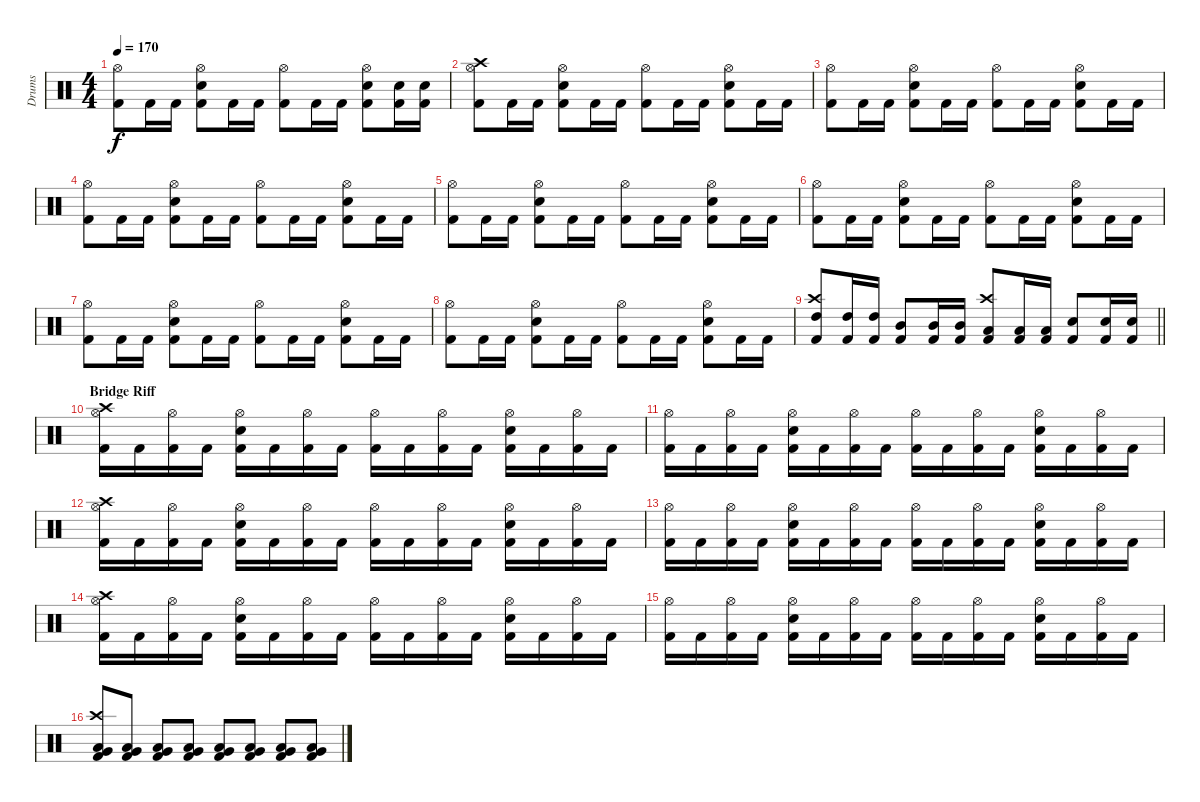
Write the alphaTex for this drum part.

\track ("Drums" "Drums") {instrument percussion}
\staff {score}
\articulation defaults
\ts (4 4)
\tempo 170
\clef neutral
\ks c
("Hi-Hat (open)" "Kick (hit) 2").8{dy f} "Kick (hit) 2".16 "Kick (hit) 2".16 ("Hi-Hat (open)" "Snare (hit) 2" "Kick (hit) 2").8 "Kick (hit) 2".16 "Kick (hit) 2".16 ("Hi-Hat (open)" "Kick (hit) 2").8 "Kick (hit) 2".16 "Kick (hit) 2".16 ("Hi-Hat (open)" "Snare (hit) 2" "Kick (hit) 2").8 ("Snare (hit) 2" "Kick (hit) 2").16 ("Snare (hit) 2" "Kick (hit) 2").16 |
("Crash high (hit)" "Hi-Hat (open)" "Kick (hit) 2").8 "Kick (hit) 2".16 "Kick (hit) 2".16 ("Hi-Hat (open)" "Snare (hit) 2" "Kick (hit) 2").8 "Kick (hit) 2".16 "Kick (hit) 2".16 ("Hi-Hat (open)" "Kick (hit) 2").8 "Kick (hit) 2".16 "Kick (hit) 2".16 ("Hi-Hat (open)" "Snare (hit) 2" "Kick (hit) 2").8 "Kick (hit) 2".16 "Kick (hit) 2".16 |
("Hi-Hat (open)" "Kick (hit) 2").8 "Kick (hit) 2".16 "Kick (hit) 2".16 ("Hi-Hat (open)" "Snare (hit) 2" "Kick (hit) 2").8 "Kick (hit) 2".16 "Kick (hit) 2".16 ("Hi-Hat (open)" "Kick (hit) 2").8 "Kick (hit) 2".16 "Kick (hit) 2".16 ("Hi-Hat (open)" "Snare (hit) 2" "Kick (hit) 2").8 "Kick (hit) 2".16 "Kick (hit) 2".16 |
("Hi-Hat (open)" "Kick (hit) 2").8 "Kick (hit) 2".16 "Kick (hit) 2".16 ("Hi-Hat (open)" "Snare (hit) 2" "Kick (hit) 2").8 "Kick (hit) 2".16 "Kick (hit) 2".16 ("Hi-Hat (open)" "Kick (hit) 2").8 "Kick (hit) 2".16 "Kick (hit) 2".16 ("Hi-Hat (open)" "Snare (hit) 2" "Kick (hit) 2").8 "Kick (hit) 2".16 "Kick (hit) 2".16 |
("Hi-Hat (open)" "Kick (hit) 2").8 "Kick (hit) 2".16 "Kick (hit) 2".16 ("Hi-Hat (open)" "Snare (hit) 2" "Kick (hit) 2").8 "Kick (hit) 2".16 "Kick (hit) 2".16 ("Hi-Hat (open)" "Kick (hit) 2").8 "Kick (hit) 2".16 "Kick (hit) 2".16 ("Hi-Hat (open)" "Snare (hit) 2" "Kick (hit) 2").8 "Kick (hit) 2".16 "Kick (hit) 2".16 |
("Hi-Hat (open)" "Kick (hit) 2").8 "Kick (hit) 2".16 "Kick (hit) 2".16 ("Hi-Hat (open)" "Snare (hit) 2" "Kick (hit) 2").8 "Kick (hit) 2".16 "Kick (hit) 2".16 ("Hi-Hat (open)" "Kick (hit) 2").8 "Kick (hit) 2".16 "Kick (hit) 2".16 ("Hi-Hat (open)" "Snare (hit) 2" "Kick (hit) 2").8 "Kick (hit) 2".16 "Kick (hit) 2".16 |
("Hi-Hat (open)" "Kick (hit) 2").8 "Kick (hit) 2".16 "Kick (hit) 2".16 ("Hi-Hat (open)" "Snare (hit) 2" "Kick (hit) 2").8 "Kick (hit) 2".16 "Kick (hit) 2".16 ("Hi-Hat (open)" "Kick (hit) 2").8 "Kick (hit) 2".16 "Kick (hit) 2".16 ("Hi-Hat (open)" "Snare (hit) 2" "Kick (hit) 2").8 "Kick (hit) 2".16 "Kick (hit) 2".16 |
("Hi-Hat (open)" "Kick (hit) 2").8 "Kick (hit) 2".16 "Kick (hit) 2".16 ("Hi-Hat (open)" "Snare (hit) 2" "Kick (hit) 2").8 "Kick (hit) 2".16 "Kick (hit) 2".16 ("Hi-Hat (open)" "Kick (hit) 2").8 "Kick (hit) 2".16 "Kick (hit) 2".16 ("Hi-Hat (open)" "Snare (hit) 2" "Kick (hit) 2").8 "Kick (hit) 2".16 "Kick (hit) 2".16 |
\barLineRight lightlight
("Crash high (hit)" "High Tom (hit)" "Kick (hit) 2").8 ("High Tom (hit)" "Kick (hit) 2").16 ("High Tom (hit)" "Kick (hit) 2").16 ("Mid Tom (hit)" "Kick (hit) 2").8 ("Mid Tom (hit)" "Kick (hit) 2").16 ("Mid Tom (hit)" "Kick (hit) 2").16 ("Crash high (hit)" "Low Tom (hit)" "Kick (hit) 2").8 ("Low Tom (hit)" "Kick (hit) 2").16 ("Low Tom (hit)" "Kick (hit) 2").16 ("Snare (hit) 2" "Kick (hit) 2").8 ("Snare (hit) 2" "Kick (hit) 2").16 ("Snare (hit) 2" "Kick (hit) 2").16 |
\section ("" "Bridge Riff")
("Crash high (hit)" "Hi-Hat (open)" "Kick (hit) 2").16 "Kick (hit) 2".16 ("Hi-Hat (open)" "Kick (hit) 2").16 "Kick (hit) 2".16 ("Hi-Hat (open)" "Snare (hit) 2" "Kick (hit) 2").16 "Kick (hit) 2".16 ("Hi-Hat (open)" "Kick (hit) 2").16 "Kick (hit) 2".16 ("Hi-Hat (open)" "Kick (hit) 2").16 "Kick (hit) 2".16 ("Hi-Hat (open)" "Kick (hit) 2").16 "Kick (hit) 2".16 ("Hi-Hat (open)" "Snare (hit) 2" "Kick (hit) 2").16 "Kick (hit) 2".16 ("Hi-Hat (open)" "Kick (hit) 2").16 "Kick (hit) 2".16 |
("Hi-Hat (open)" "Kick (hit) 2").16 "Kick (hit) 2".16 ("Hi-Hat (open)" "Kick (hit) 2").16 "Kick (hit) 2".16 ("Hi-Hat (open)" "Snare (hit) 2" "Kick (hit) 2").16 "Kick (hit) 2".16 ("Hi-Hat (open)" "Kick (hit) 2").16 "Kick (hit) 2".16 ("Hi-Hat (open)" "Kick (hit) 2").16 "Kick (hit) 2".16 ("Hi-Hat (open)" "Kick (hit) 2").16 "Kick (hit) 2".16 ("Hi-Hat (open)" "Snare (hit) 2" "Kick (hit) 2").16 "Kick (hit) 2".16 ("Hi-Hat (open)" "Kick (hit) 2").16 "Kick (hit) 2".16 |
("Crash high (hit)" "Hi-Hat (open)" "Kick (hit) 2").16 "Kick (hit) 2".16 ("Hi-Hat (open)" "Kick (hit) 2").16 "Kick (hit) 2".16 ("Hi-Hat (open)" "Snare (hit) 2" "Kick (hit) 2").16 "Kick (hit) 2".16 ("Hi-Hat (open)" "Kick (hit) 2").16 "Kick (hit) 2".16 ("Hi-Hat (open)" "Kick (hit) 2").16 "Kick (hit) 2".16 ("Hi-Hat (open)" "Kick (hit) 2").16 "Kick (hit) 2".16 ("Hi-Hat (open)" "Snare (hit) 2" "Kick (hit) 2").16 "Kick (hit) 2".16 ("Hi-Hat (open)" "Kick (hit) 2").16 "Kick (hit) 2".16 |
("Hi-Hat (open)" "Kick (hit) 2").16 "Kick (hit) 2".16 ("Hi-Hat (open)" "Kick (hit) 2").16 "Kick (hit) 2".16 ("Hi-Hat (open)" "Snare (hit) 2" "Kick (hit) 2").16 "Kick (hit) 2".16 ("Hi-Hat (open)" "Kick (hit) 2").16 "Kick (hit) 2".16 ("Hi-Hat (open)" "Kick (hit) 2").16 "Kick (hit) 2".16 ("Hi-Hat (open)" "Kick (hit) 2").16 "Kick (hit) 2".16 ("Hi-Hat (open)" "Snare (hit) 2" "Kick (hit) 2").16 "Kick (hit) 2".16 ("Hi-Hat (open)" "Kick (hit) 2").16 "Kick (hit) 2".16 |
("Crash high (hit)" "Hi-Hat (open)" "Kick (hit) 2").16 "Kick (hit) 2".16 ("Hi-Hat (open)" "Kick (hit) 2").16 "Kick (hit) 2".16 ("Hi-Hat (open)" "Snare (hit) 2" "Kick (hit) 2").16 "Kick (hit) 2".16 ("Hi-Hat (open)" "Kick (hit) 2").16 "Kick (hit) 2".16 ("Hi-Hat (open)" "Kick (hit) 2").16 "Kick (hit) 2".16 ("Hi-Hat (open)" "Kick (hit) 2").16 "Kick (hit) 2".16 ("Hi-Hat (open)" "Snare (hit) 2" "Kick (hit) 2").16 "Kick (hit) 2".16 ("Hi-Hat (open)" "Kick (hit) 2").16 "Kick (hit) 2".16 |
("Hi-Hat (open)" "Kick (hit) 2").16 "Kick (hit) 2".16 ("Hi-Hat (open)" "Kick (hit) 2").16 "Kick (hit) 2".16 ("Hi-Hat (open)" "Snare (hit) 2" "Kick (hit) 2").16 "Kick (hit) 2".16 ("Hi-Hat (open)" "Kick (hit) 2").16 "Kick (hit) 2".16 ("Hi-Hat (open)" "Kick (hit) 2").16 "Kick (hit) 2".16 ("Hi-Hat (open)" "Kick (hit) 2").16 "Kick (hit) 2".16 ("Hi-Hat (open)" "Snare (hit) 2" "Kick (hit) 2").16 "Kick (hit) 2".16 ("Hi-Hat (open)" "Kick (hit) 2").16 "Kick (hit) 2".16 |
("Crash high (hit)" "Low Tom (hit)" "Very Low Tom (hit)" "Kick (hit) 2").8 ("Low Tom (hit)" "Very Low Tom (hit)" "Kick (hit) 2").8 ("Low Tom (hit)" "Very Low Tom (hit)" "Kick (hit) 2").8 ("Low Tom (hit)" "Very Low Tom (hit)" "Kick (hit) 2").8 ("Low Tom (hit)" "Very Low Tom (hit)" "Kick (hit) 2").8 ("Low Tom (hit)" "Very Low Tom (hit)" "Kick (hit) 2").8 ("Low Tom (hit)" "Very Low Tom (hit)" "Kick (hit) 2").8 ("Low Tom (hit)" "Very Low Tom (hit)" "Kick (hit) 2").8
